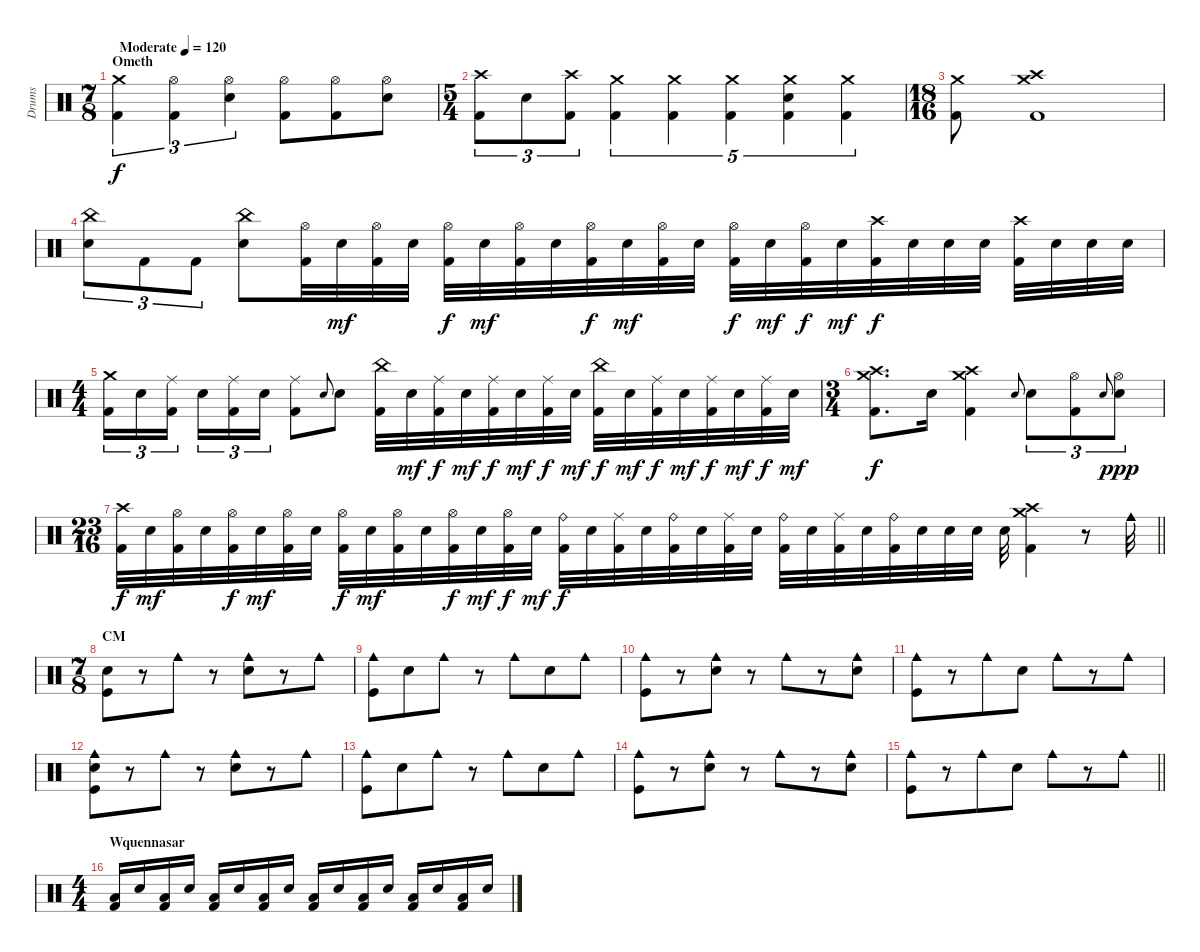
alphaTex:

\track ("Drums" "Drums") {instrument percussion}
\staff {score}
\articulation defaults
\ts (7 8)
\section ("" "Ometh")
\tempo (120 "Moderate")
\clef neutral
\ks c
("Crash medium (hit)" "Kick (hit) 2").4{tu (3 2) dy f} ("Hi-Hat (open)" "Kick (hit) 2").4{tu (3 2)} ("Hi-Hat (open)" "Electric Snare (hit)").4{tu (3 2)} ("Hi-Hat (open)" "Kick (hit) 2").8 ("Hi-Hat (open)" "Kick (hit) 2").8 ("Hi-Hat (open)" "Electric Snare (hit)").8 |
\ts (5 4)
("Crash high (hit)" "Kick (hit) 2").8{tu (3 2)} "Electric Snare (hit)".8{tu (3 2)} ("Crash high (hit)" "Kick (hit) 2").8{tu (3 2)} ("Crash medium (hit)" "Kick (hit) 2").4{tu (5 4)} ("Crash medium (hit)" "Kick (hit) 2").4{tu (5 4)} ("Crash medium (hit)" "Kick (hit) 2").4{tu (5 4)} ("Crash medium (hit)" "Electric Snare (hit)" "Kick (hit) 2").4{tu (5 4)} ("Crash medium (hit)" "Kick (hit) 2").4{tu (5 4)} |
\ts (18 16)
("Crash medium (hit)" "Kick (hit) 2").8 ("Crash medium (hit)" "Crash high (hit)" "Kick (hit) 2").1 |
("China (hit)" "Electric Snare (hit)").8{tu (3 2)} "Kick (hit) 2".8{tu (3 2)} "Kick (hit) 2".8{tu (3 2)} ("China (hit)" "Electric Snare (hit)").8 ("Hi-Hat (open)" "Kick (hit) 2").32 "Electric Snare (hit)".32{dy mf} ("Hi-Hat (open)" "Kick (hit) 2").32 "Electric Snare (hit)".32 ("Hi-Hat (open)" "Kick (hit) 2").32{dy f} "Electric Snare (hit)".32{dy mf} ("Hi-Hat (open)" "Kick (hit) 2").32 "Electric Snare (hit)".32 ("Hi-Hat (open)" "Kick (hit) 2").32{dy f} "Electric Snare (hit)".32{dy mf} ("Hi-Hat (open)" "Kick (hit) 2").32 "Electric Snare (hit)".32 ("Hi-Hat (open)" "Kick (hit) 2").32{dy f} "Electric Snare (hit)".32{dy mf} ("Hi-Hat (open)" "Kick (hit) 2").32{dy f} "Electric Snare (hit)".32{dy mf} ("Crash high (hit)" "Kick (hit) 2").32{dy f} "Electric Snare (hit)".32 "Electric Snare (hit)".32 "Electric Snare (hit)".32 ("Crash high (hit)" "Kick (hit) 2").32 "Electric Snare (hit)".32 "Electric Snare (hit)".32 "Electric Snare (hit)".32 |
\ts (4 4)
("Crash medium (hit)" "Kick (hit) 2").16{tu (3 2)} "Electric Snare (hit)".16{tu (3 2)} ("Ride (middle)" "Kick (hit) 2").16{tu (3 2) beam splitsecondary} "Electric Snare (hit)".16{tu (3 2)} ("Ride (middle)" "Kick (hit) 2").16{tu (3 2)} "Electric Snare (hit)".16{tu (3 2)} ("Ride (middle)" "Kick (hit) 2").8 "Electric Snare (hit)".8{gr onbeat} "Electric Snare (hit)".8 ("China (hit)" "Kick (hit) 2").32 "Electric Snare (hit)".32{dy mf} ("Ride (middle)" "Kick (hit) 2").32{dy f} "Electric Snare (hit)".32{dy mf} ("Ride (middle)" "Kick (hit) 2").32{dy f} "Electric Snare (hit)".32{dy mf} ("Ride (middle)" "Kick (hit) 2").32{dy f} "Electric Snare (hit)".32{dy mf} ("China (hit)" "Kick (hit) 2").32{dy f} "Electric Snare (hit)".32{dy mf} ("Ride (middle)" "Kick (hit) 2").32{dy f} "Electric Snare (hit)".32{dy mf} ("Ride (middle)" "Kick (hit) 2").32{dy f} "Electric Snare (hit)".32{dy mf} ("Ride (middle)" "Kick (hit) 2").32{dy f} "Electric Snare (hit)".32{dy mf} |
\ts (3 4)
("Crash medium (hit)" "Crash high (hit)" "Kick (hit) 2").8{d dy f} "Electric Snare (hit)".16 ("Crash medium (hit)" "Crash high (hit)" "Kick (hit) 2").4 "Electric Snare (hit)".8{gr onbeat} "Electric Snare (hit)".8{tu (3 2)} ("Hi-Hat (open)" "Kick (hit) 2").8{tu (3 2)} "Electric Snare (hit)".8{gr onbeat} ("Hi-Hat (open)" "Electric Snare (hit)").8{tu (3 2) dy ppp} |
\ts (23 16)
\barLineRight lightlight
("Crash high (hit)" "Kick (hit) 2").32{dy f} "Electric Snare (hit)".32{dy mf} ("Hi-Hat (open)" "Kick (hit) 2").32 "Electric Snare (hit)".32 ("Hi-Hat (open)" "Kick (hit) 2").32{dy f} "Electric Snare (hit)".32{dy mf} ("Hi-Hat (open)" "Kick (hit) 2").32 "Electric Snare (hit)".32 ("Hi-Hat (open)" "Kick (hit) 2").32{dy f} "Electric Snare (hit)".32{dy mf} ("Hi-Hat (open)" "Kick (hit) 2").32 "Electric Snare (hit)".32 ("Hi-Hat (open)" "Kick (hit) 2").32{dy f} "Electric Snare (hit)".32{dy mf} ("Hi-Hat (open)" "Kick (hit) 2").32{dy f} "Electric Snare (hit)".32{dy mf} ("Ride (bell)" "Kick (hit) 2").32{dy f} "Electric Snare (hit)".32 ("Ride (middle)" "Kick (hit) 2").32 "Electric Snare (hit)".32 ("Ride (bell)" "Kick (hit) 2").32 "Electric Snare (hit)".32 ("Ride (middle)" "Kick (hit) 2").32 "Electric Snare (hit)".32 ("Ride (bell)" "Kick (hit) 2").32 "Electric Snare (hit)".32 ("Ride (middle)" "Kick (hit) 2").32 "Electric Snare (hit)".32 ("Ride (bell)" "Kick (hit) 2").32 "Electric Snare (hit)".32 "Electric Snare (hit)".32 "Electric Snare (hit)".32 "Electric Snare (hit)".32 ("Crash medium (hit)" "Crash high (hit)" "Kick (hit) 2").4 r.8 "Cowbell medium (hit)".32 |
\ts (7 8)
\section ("" "CM")
("Hand Clap (hit)" "Kick (hit)").8 r.8 "Cowbell medium (hit)".8 r.8 ("Cowbell medium (hit)" "Hand Clap (hit)").8 r.8 "Cowbell medium (hit)".8 |
("Cowbell medium (hit)" "Kick (hit)").8 "Hand Clap (hit)".8 "Cowbell medium (hit)".8 r.8 "Cowbell medium (hit)".8 "Hand Clap (hit)".8 "Cowbell medium (hit)".8 |
("Cowbell medium (hit)" "Kick (hit)").8 r.8 ("Cowbell medium (hit)" "Hand Clap (hit)").8 r.8 "Cowbell medium (hit)".8 r.8 ("Cowbell medium (hit)" "Hand Clap (hit)").8 |
("Cowbell medium (hit)" "Kick (hit)").8 r.8 "Cowbell medium (hit)".8 "Hand Clap (hit)".8 "Cowbell medium (hit)".8 r.8 "Cowbell medium (hit)".8 |
("Cowbell medium (hit)" "Hand Clap (hit)" "Kick (hit)").8 r.8 "Cowbell medium (hit)".8 r.8 ("Cowbell medium (hit)" "Hand Clap (hit)").8 r.8 "Cowbell medium (hit)".8 |
("Cowbell medium (hit)" "Kick (hit)").8 "Hand Clap (hit)".8 "Cowbell medium (hit)".8 r.8 "Cowbell medium (hit)".8 "Hand Clap (hit)".8 "Cowbell medium (hit)".8 |
("Cowbell medium (hit)" "Kick (hit)").8 r.8 ("Cowbell medium (hit)" "Hand Clap (hit)").8 r.8 "Cowbell medium (hit)".8 r.8 ("Cowbell medium (hit)" "Hand Clap (hit)").8 |
\barLineRight lightlight
("Cowbell medium (hit)" "Kick (hit)").8 r.8 "Cowbell medium (hit)".8 "Hand Clap (hit)".8 "Cowbell medium (hit)".8 r.8 "Cowbell medium (hit)".8 |
\ts (4 4)
\section ("" "Wquennasar")
("Low Tom (hit)" "Kick (hit) 2").16 "Electric Snare (hit)".16 ("Low Tom (hit)" "Kick (hit) 2").16 "Electric Snare (hit)".16 ("Low Tom (hit)" "Kick (hit) 2").16 "Electric Snare (hit)".16 ("Low Tom (hit)" "Kick (hit) 2").16 "Electric Snare (hit)".16 ("Low Tom (hit)" "Kick (hit) 2").16 "Electric Snare (hit)".16 ("Low Tom (hit)" "Kick (hit) 2").16 "Electric Snare (hit)".16 ("Low Tom (hit)" "Kick (hit) 2").16 "Electric Snare (hit)".16 ("Low Tom (hit)" "Kick (hit) 2").16 "Electric Snare (hit)".16
